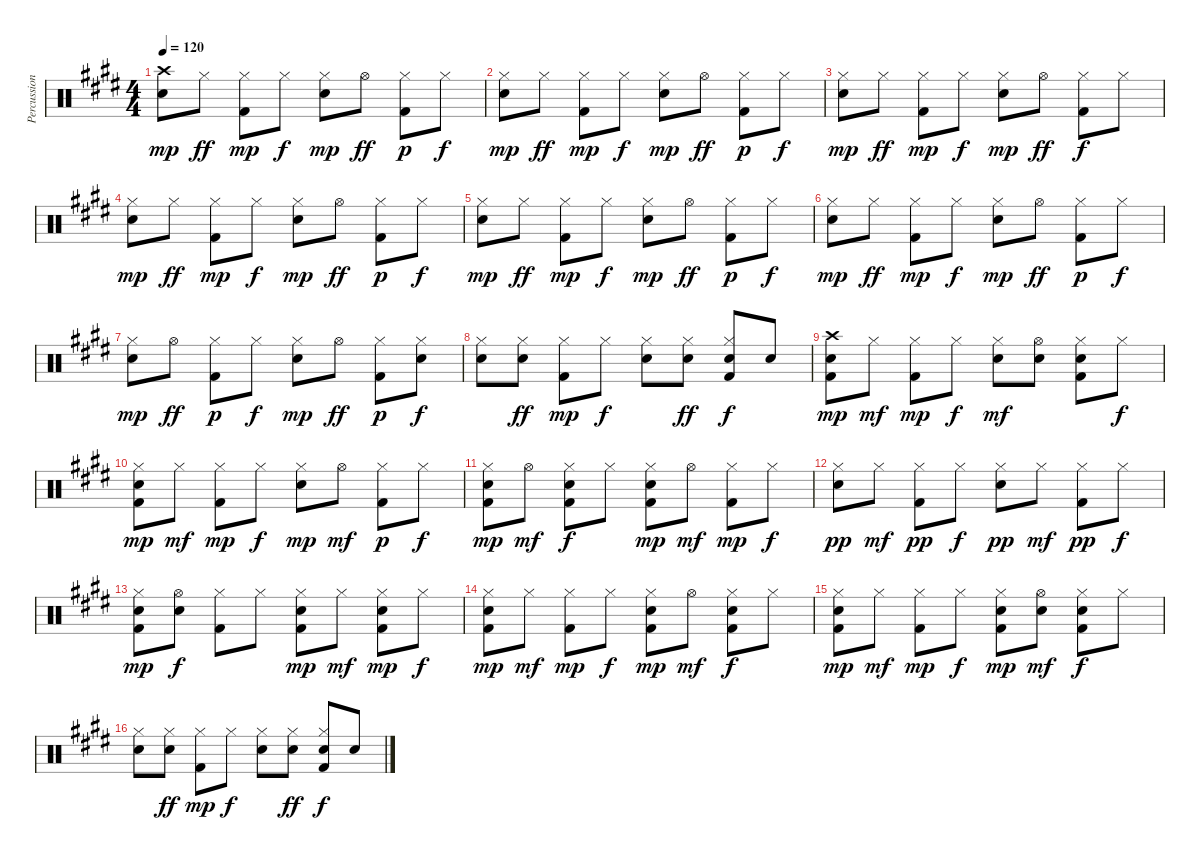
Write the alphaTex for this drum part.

\track ("Percussion" "Percussion") {instrument percussion}
\staff {score}
\articulation defaults
\ts (4 4)
\tempo 120
\clef neutral
\ks e
("Crash high (hit)" "Snare (hit) 2").8{dy mp} "Hi-Hat (closed)".8{dy ff} ("Hi-Hat (closed)" "Kick (hit) 2").8{dy mp} "Hi-Hat (closed)".8{dy f} ("Hi-Hat (closed)" "Snare (hit) 2").8{dy mp} "Hi-Hat (open)".8{dy ff} ("Hi-Hat (closed)" "Kick (hit) 2").8{dy p} "Hi-Hat (closed)".8{dy f} |
("Hi-Hat (closed)" "Snare (hit) 2").8{dy mp} "Hi-Hat (closed)".8{dy ff} ("Hi-Hat (closed)" "Kick (hit) 2").8{dy mp} "Hi-Hat (closed)".8{dy f} ("Hi-Hat (closed)" "Snare (hit) 2").8{dy mp} "Hi-Hat (open)".8{dy ff} ("Hi-Hat (closed)" "Kick (hit) 2").8{dy p} "Hi-Hat (closed)".8{dy f} |
("Hi-Hat (closed)" "Snare (hit) 2").8{dy mp} "Hi-Hat (closed)".8{dy ff} ("Hi-Hat (closed)" "Kick (hit) 2").8{dy mp} "Hi-Hat (closed)".8{dy f} ("Hi-Hat (closed)" "Snare (hit) 2").8{dy mp} "Hi-Hat (open)".8{dy ff} ("Hi-Hat (closed)" "Kick (hit) 2").8{dy f} "Hi-Hat (closed)".8 |
("Hi-Hat (closed)" "Snare (hit) 2").8{dy mp} "Hi-Hat (closed)".8{dy ff} ("Hi-Hat (closed)" "Kick (hit) 2").8{dy mp} "Hi-Hat (closed)".8{dy f} ("Hi-Hat (closed)" "Snare (hit) 2").8{dy mp} "Hi-Hat (open)".8{dy ff} ("Hi-Hat (closed)" "Kick (hit) 2").8{dy p} "Hi-Hat (closed)".8{dy f} |
("Hi-Hat (closed)" "Snare (hit) 2").8{dy mp} "Hi-Hat (closed)".8{dy ff} ("Hi-Hat (closed)" "Kick (hit) 2").8{dy mp} "Hi-Hat (closed)".8{dy f} ("Hi-Hat (closed)" "Snare (hit) 2").8{dy mp} "Hi-Hat (open)".8{dy ff} ("Hi-Hat (closed)" "Kick (hit) 2").8{dy p} "Hi-Hat (closed)".8{dy f} |
("Hi-Hat (closed)" "Snare (hit) 2").8{dy mp} "Hi-Hat (closed)".8{dy ff} ("Hi-Hat (closed)" "Kick (hit) 2").8{dy mp} "Hi-Hat (closed)".8{dy f} ("Hi-Hat (closed)" "Snare (hit) 2").8{dy mp} "Hi-Hat (open)".8{dy ff} ("Hi-Hat (closed)" "Kick (hit) 2").8{dy p} "Hi-Hat (closed)".8{dy f} |
("Hi-Hat (closed)" "Snare (hit) 2").8{dy mp} "Hi-Hat (open)".8{dy ff} ("Hi-Hat (closed)" "Kick (hit) 2").8{dy p} "Hi-Hat (closed)".8{dy f} ("Hi-Hat (closed)" "Snare (hit) 2").8{dy mp} "Hi-Hat (open)".8{dy ff} ("Hi-Hat (closed)" "Kick (hit) 2").8{dy p} ("Hi-Hat (closed)" "Snare (hit) 2").8{dy f} |
("Hi-Hat (closed)" "Snare (hit) 2").8 ("Hi-Hat (closed)" "Snare (hit) 2").8{dy ff} ("Hi-Hat (closed)" "Kick (hit) 2").8{dy mp} "Hi-Hat (closed)".8{dy f} ("Hi-Hat (closed)" "Snare (hit) 2").8 ("Hi-Hat (closed)" "Snare (hit) 2").8{dy ff} ("Hi-Hat (closed)" "Snare (hit) 2" "Kick (hit) 2").8{dy f} "Snare (hit) 2".8 |
("Crash high (hit)" "Snare (hit) 2" "Kick (hit) 2").8{dy mp} "Hi-Hat (closed)".8{dy mf} ("Hi-Hat (closed)" "Kick (hit) 2").8{dy mp} "Hi-Hat (closed)".8{dy f} ("Hi-Hat (closed)" "Snare (hit) 2").8{dy mf} ("Hi-Hat (open)" "Snare (hit) 2").8 ("Hi-Hat (closed)" "Snare (hit) 2" "Kick (hit) 2").8 "Hi-Hat (closed)".8{dy f} |
("Hi-Hat (closed)" "Snare (hit) 2" "Kick (hit) 2").8{dy mp} "Hi-Hat (closed)".8{dy mf} ("Hi-Hat (closed)" "Kick (hit) 2").8{dy mp} "Hi-Hat (closed)".8{dy f} ("Hi-Hat (closed)" "Snare (hit) 2").8{dy mp} "Hi-Hat (open)".8{dy mf} ("Hi-Hat (closed)" "Kick (hit) 2").8{dy p} "Hi-Hat (closed)".8{dy f} |
("Hi-Hat (closed)" "Snare (hit) 2" "Kick (hit) 2").8{dy mp} "Hi-Hat (open)".8{dy mf} ("Hi-Hat (closed)" "Snare (hit) 2" "Kick (hit) 2").8{dy f} "Hi-Hat (closed)".8 ("Hi-Hat (closed)" "Snare (hit) 2" "Kick (hit) 2").8{dy mp} "Hi-Hat (open)".8{dy mf} ("Hi-Hat (closed)" "Kick (hit) 2").8{dy mp} "Hi-Hat (closed)".8{dy f} |
("Hi-Hat (closed)" "Snare (hit) 2").8{dy pp} "Hi-Hat (closed)".8{dy mf} ("Hi-Hat (closed)" "Kick (hit) 2").8{dy pp} "Hi-Hat (closed)".8{dy f} ("Hi-Hat (closed)" "Snare (hit) 2").8{dy pp} "Hi-Hat (closed)".8{dy mf} ("Hi-Hat (closed)" "Kick (hit) 2").8{dy pp} "Hi-Hat (closed)".8{dy f} |
("Hi-Hat (closed)" "Snare (hit) 2" "Kick (hit) 2").8{dy mp} ("Hi-Hat (open)" "Snare (hit) 2").8{dy f} ("Hi-Hat (closed)" "Kick (hit) 2").8 "Hi-Hat (closed)".8 ("Hi-Hat (closed)" "Snare (hit) 2" "Kick (hit) 2").8{dy mp} "Hi-Hat (closed)".8{dy mf} ("Hi-Hat (closed)" "Snare (hit) 2" "Kick (hit) 2").8{dy mp} "Hi-Hat (closed)".8{dy f} |
("Hi-Hat (closed)" "Snare (hit) 2" "Kick (hit) 2").8{dy mp} "Hi-Hat (closed)".8{dy mf} ("Hi-Hat (closed)" "Kick (hit) 2").8{dy mp} "Hi-Hat (closed)".8{dy f} ("Hi-Hat (closed)" "Snare (hit) 2" "Kick (hit) 2").8{dy mp} "Hi-Hat (open)".8{dy mf} ("Hi-Hat (closed)" "Snare (hit) 2" "Kick (hit) 2").8{dy f} "Hi-Hat (closed)".8 |
("Hi-Hat (closed)" "Snare (hit) 2" "Kick (hit) 2").8{dy mp} "Hi-Hat (closed)".8{dy mf} ("Hi-Hat (closed)" "Kick (hit) 2").8{dy mp} "Hi-Hat (closed)".8{dy f} ("Hi-Hat (closed)" "Snare (hit) 2" "Kick (hit) 2").8{dy mp} ("Hi-Hat (open)" "Snare (hit) 2").8{dy mf} ("Hi-Hat (closed)" "Snare (hit) 2" "Kick (hit) 2").8{dy f} "Hi-Hat (closed)".8 |
("Hi-Hat (closed)" "Snare (hit) 2").8 ("Hi-Hat (closed)" "Snare (hit) 2").8{dy ff} ("Hi-Hat (closed)" "Kick (hit) 2").8{dy mp} "Hi-Hat (closed)".8{dy f} ("Hi-Hat (closed)" "Snare (hit) 2").8 ("Hi-Hat (closed)" "Snare (hit) 2").8{dy ff} ("Hi-Hat (closed)" "Snare (hit) 2" "Kick (hit) 2").8{dy f} "Snare (hit) 2".8
